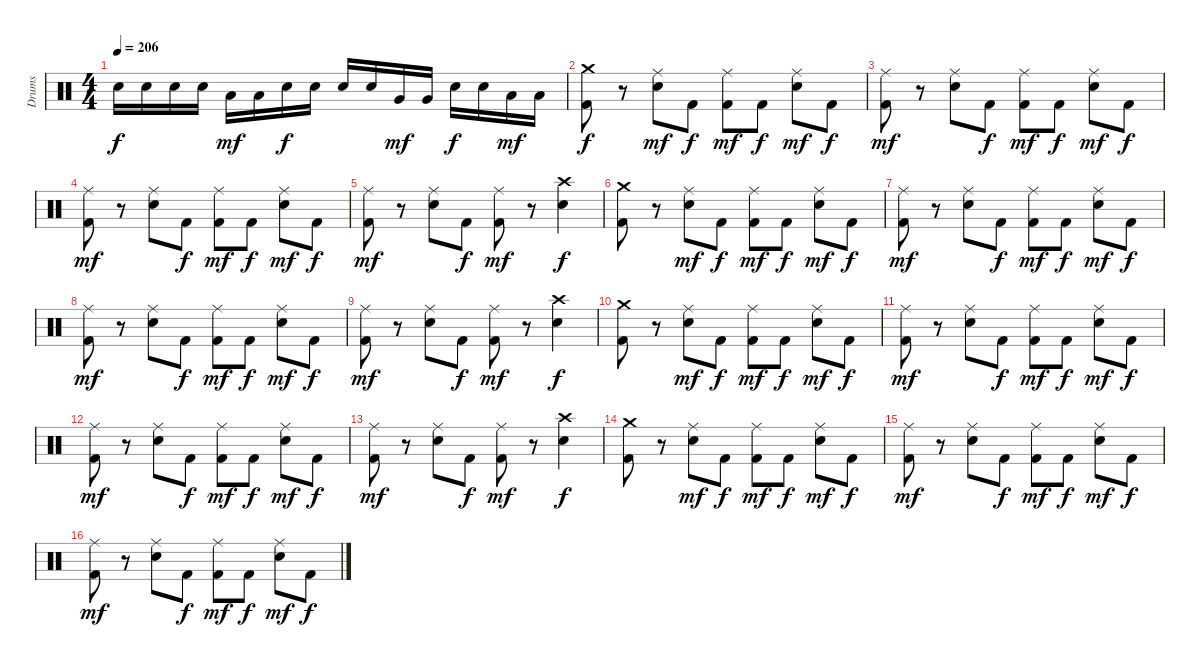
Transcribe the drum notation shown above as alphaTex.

\track ("Drums" "Drums") {instrument percussion}
\staff {score}
\articulation defaults
\ts (4 4)
\tempo 206
\clef neutral
\ks c "Snare (hit) 2".16{dy f} "Snare (hit) 2".16 "Snare (hit) 2".16 "Snare (hit) 2".16 "Low Tom (hit)".16{dy mf} "Low Tom (hit)".16 "Snare (hit) 2".16{dy f} "Snare (hit) 2".16 "Snare (hit) 2".16 "Snare (hit) 2".16 "Very Low Tom (hit)".16{dy mf} "Very Low Tom (hit)".16 "Snare (hit) 2".16{dy f} "Snare (hit) 2".16 "Low Floor Tom (hit)".16{dy mf} "Low Floor Tom (hit)".16
|
("Crash medium (hit)" "Kick (hit) 2").8{dy f} r.8 ("Ride (middle)" "Snare (hit) 2").8{dy mf} "Kick (hit) 2".8{dy f} ("Ride (middle)" "Kick (hit) 2").8{dy mf} "Kick (hit) 2".8{dy f} ("Ride (middle)" "Snare (hit) 2").8{dy mf} "Kick (hit) 2".8{dy f} |
("Ride (middle)" "Kick (hit) 2").8{dy mf} r.8 ("Ride (middle)" "Snare (hit) 2").8 "Kick (hit) 2".8{dy f} ("Ride (middle)" "Kick (hit) 2").8{dy mf} "Kick (hit) 2".8{dy f} ("Ride (middle)" "Snare (hit) 2").8{dy mf} "Kick (hit) 2".8{dy f} |
("Ride (middle)" "Kick (hit) 2").8{dy mf} r.8 ("Ride (middle)" "Snare (hit) 2").8 "Kick (hit) 2".8{dy f} ("Ride (middle)" "Kick (hit) 2").8{dy mf} "Kick (hit) 2".8{dy f} ("Ride (middle)" "Snare (hit) 2").8{dy mf} "Kick (hit) 2".8{dy f} |
("Ride (middle)" "Kick (hit) 2").8{dy mf} r.8 ("Ride (middle)" "Snare (hit) 2").8 "Kick (hit) 2".8{dy f} ("Ride (middle)" "Kick (hit) 2").8{dy mf} r.8 ("Crash high (hit)" "Snare (hit) 2").4{dy f} |
("Crash medium (hit)" "Kick (hit) 2").8 r.8 ("Ride (middle)" "Snare (hit) 2").8{dy mf} "Kick (hit) 2".8{dy f} ("Ride (middle)" "Kick (hit) 2").8{dy mf} "Kick (hit) 2".8{dy f} ("Ride (middle)" "Snare (hit) 2").8{dy mf} "Kick (hit) 2".8{dy f} |
("Ride (middle)" "Kick (hit) 2").8{dy mf} r.8 ("Ride (middle)" "Snare (hit) 2").8 "Kick (hit) 2".8{dy f} ("Ride (middle)" "Kick (hit) 2").8{dy mf} "Kick (hit) 2".8{dy f} ("Ride (middle)" "Snare (hit) 2").8{dy mf} "Kick (hit) 2".8{dy f} |
("Ride (middle)" "Kick (hit) 2").8{dy mf} r.8 ("Ride (middle)" "Snare (hit) 2").8 "Kick (hit) 2".8{dy f} ("Ride (middle)" "Kick (hit) 2").8{dy mf} "Kick (hit) 2".8{dy f} ("Ride (middle)" "Snare (hit) 2").8{dy mf} "Kick (hit) 2".8{dy f} |
("Ride (middle)" "Kick (hit) 2").8{dy mf} r.8 ("Ride (middle)" "Snare (hit) 2").8 "Kick (hit) 2".8{dy f} ("Ride (middle)" "Kick (hit) 2").8{dy mf} r.8 ("Crash high (hit)" "Snare (hit) 2").4{dy f} |
("Crash medium (hit)" "Kick (hit) 2").8 r.8 ("Ride (middle)" "Snare (hit) 2").8{dy mf} "Kick (hit) 2".8{dy f} ("Ride (middle)" "Kick (hit) 2").8{dy mf} "Kick (hit) 2".8{dy f} ("Ride (middle)" "Snare (hit) 2").8{dy mf} "Kick (hit) 2".8{dy f} |
("Ride (middle)" "Kick (hit) 2").8{dy mf} r.8 ("Ride (middle)" "Snare (hit) 2").8 "Kick (hit) 2".8{dy f} ("Ride (middle)" "Kick (hit) 2").8{dy mf} "Kick (hit) 2".8{dy f} ("Ride (middle)" "Snare (hit) 2").8{dy mf} "Kick (hit) 2".8{dy f} |
("Ride (middle)" "Kick (hit) 2").8{dy mf} r.8 ("Ride (middle)" "Snare (hit) 2").8 "Kick (hit) 2".8{dy f} ("Ride (middle)" "Kick (hit) 2").8{dy mf} "Kick (hit) 2".8{dy f} ("Ride (middle)" "Snare (hit) 2").8{dy mf} "Kick (hit) 2".8{dy f} |
("Ride (middle)" "Kick (hit) 2").8{dy mf} r.8 ("Ride (middle)" "Snare (hit) 2").8 "Kick (hit) 2".8{dy f} ("Ride (middle)" "Kick (hit) 2").8{dy mf} r.8 ("Crash high (hit)" "Snare (hit) 2").4{dy f} |
("Crash medium (hit)" "Kick (hit) 2").8 r.8 ("Ride (middle)" "Snare (hit) 2").8{dy mf} "Kick (hit) 2".8{dy f} ("Ride (middle)" "Kick (hit) 2").8{dy mf} "Kick (hit) 2".8{dy f} ("Ride (middle)" "Snare (hit) 2").8{dy mf} "Kick (hit) 2".8{dy f} |
("Ride (middle)" "Kick (hit) 2").8{dy mf} r.8 ("Ride (middle)" "Snare (hit) 2").8 "Kick (hit) 2".8{dy f} ("Ride (middle)" "Kick (hit) 2").8{dy mf} "Kick (hit) 2".8{dy f} ("Ride (middle)" "Snare (hit) 2").8{dy mf} "Kick (hit) 2".8{dy f} |
("Ride (middle)" "Kick (hit) 2").8{dy mf} r.8 ("Ride (middle)" "Snare (hit) 2").8 "Kick (hit) 2".8{dy f} ("Ride (middle)" "Kick (hit) 2").8{dy mf} "Kick (hit) 2".8{dy f} ("Ride (middle)" "Snare (hit) 2").8{dy mf} "Kick (hit) 2".8{dy f}
